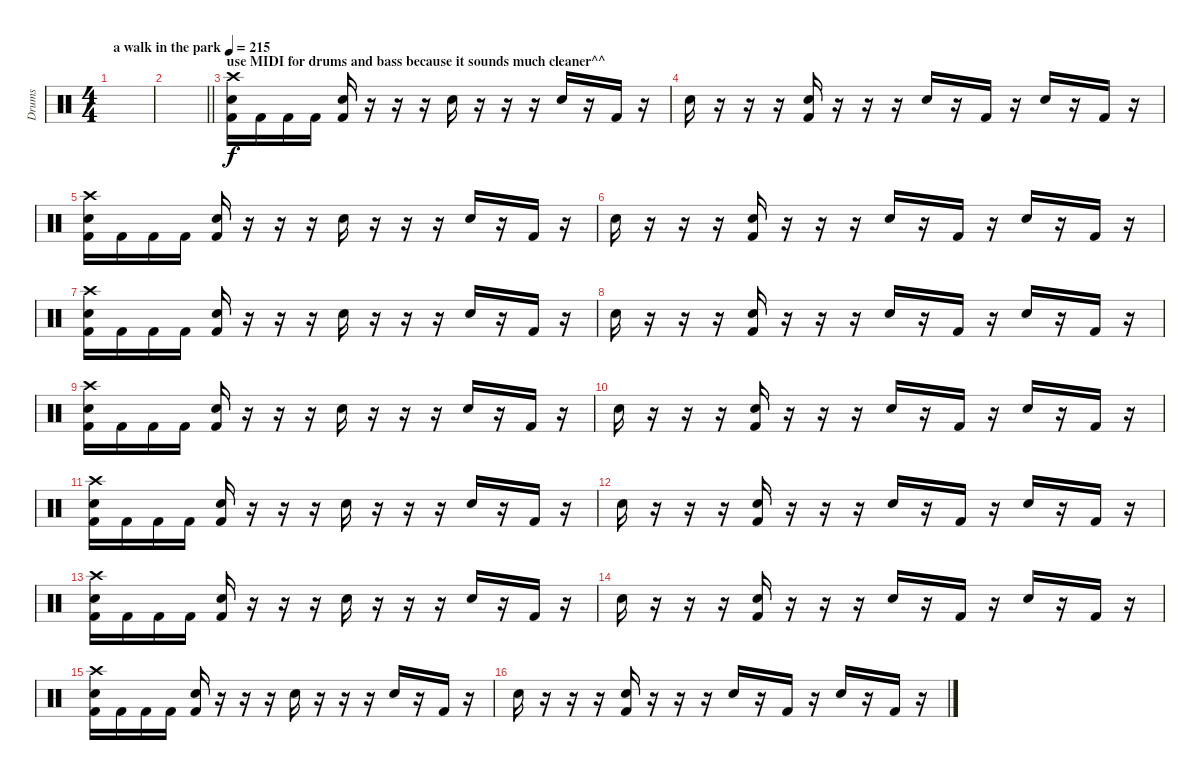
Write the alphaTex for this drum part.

\track ("Drums" "Drums") {instrument percussion}
\staff {score}
\articulation defaults
\ts (4 4)
\tempo (215 "a walk in the park")
\clef neutral
\ks c
|
\barLineRight lightlight
|
\section ("" "use MIDI for drums and bass because it sounds much cleaner^^")
("Crash high (hit)" "Snare (hit) 2" "Kick (hit) 2").16 "Kick (hit) 2".16 "Kick (hit) 2".16 "Kick (hit) 2".16 ("Snare (hit) 2" "Kick (hit) 2").16 r.16 r.16 r.16 "Snare (hit) 2".16 r.16 r.16 r.16 "Snare (hit) 2".16 r.16 "Kick (hit) 2".16 r.16 |
"Snare (hit) 2".16 r.16 r.16 r.16 ("Snare (hit) 2" "Kick (hit) 2").16 r.16 r.16 r.16 "Snare (hit) 2".16 r.16 "Kick (hit) 2".16 r.16 "Snare (hit) 2".16 r.16 "Kick (hit) 2".16 r.16 |
("Crash high (hit)" "Snare (hit) 2" "Kick (hit) 2").16 "Kick (hit) 2".16 "Kick (hit) 2".16 "Kick (hit) 2".16 ("Snare (hit) 2" "Kick (hit) 2").16 r.16 r.16 r.16 "Snare (hit) 2".16 r.16 r.16 r.16 "Snare (hit) 2".16 r.16 "Kick (hit) 2".16 r.16 |
"Snare (hit) 2".16 r.16 r.16 r.16 ("Snare (hit) 2" "Kick (hit) 2").16 r.16 r.16 r.16 "Snare (hit) 2".16 r.16 "Kick (hit) 2".16 r.16 "Snare (hit) 2".16 r.16 "Kick (hit) 2".16 r.16 |
("Crash high (hit)" "Snare (hit) 2" "Kick (hit) 2").16 "Kick (hit) 2".16 "Kick (hit) 2".16 "Kick (hit) 2".16 ("Snare (hit) 2" "Kick (hit) 2").16 r.16 r.16 r.16 "Snare (hit) 2".16 r.16 r.16 r.16 "Snare (hit) 2".16 r.16 "Kick (hit) 2".16 r.16 |
"Snare (hit) 2".16 r.16 r.16 r.16 ("Snare (hit) 2" "Kick (hit) 2").16 r.16 r.16 r.16 "Snare (hit) 2".16 r.16 "Kick (hit) 2".16 r.16 "Snare (hit) 2".16 r.16 "Kick (hit) 2".16 r.16 |
("Crash high (hit)" "Snare (hit) 2" "Kick (hit) 2").16 "Kick (hit) 2".16 "Kick (hit) 2".16 "Kick (hit) 2".16 ("Snare (hit) 2" "Kick (hit) 2").16 r.16 r.16 r.16 "Snare (hit) 2".16 r.16 r.16 r.16 "Snare (hit) 2".16 r.16 "Kick (hit) 2".16 r.16 |
"Snare (hit) 2".16 r.16 r.16 r.16 ("Snare (hit) 2" "Kick (hit) 2").16 r.16 r.16 r.16 "Snare (hit) 2".16 r.16 "Kick (hit) 2".16 r.16 "Snare (hit) 2".16 r.16 "Kick (hit) 2".16 r.16 |
("Crash high (hit)" "Snare (hit) 2" "Kick (hit) 2").16 "Kick (hit) 2".16 "Kick (hit) 2".16 "Kick (hit) 2".16 ("Snare (hit) 2" "Kick (hit) 2").16 r.16 r.16 r.16 "Snare (hit) 2".16 r.16 r.16 r.16 "Snare (hit) 2".16 r.16 "Kick (hit) 2".16 r.16 |
"Snare (hit) 2".16 r.16 r.16 r.16 ("Snare (hit) 2" "Kick (hit) 2").16 r.16 r.16 r.16 "Snare (hit) 2".16 r.16 "Kick (hit) 2".16 r.16 "Snare (hit) 2".16 r.16 "Kick (hit) 2".16 r.16 |
("Crash high (hit)" "Snare (hit) 2" "Kick (hit) 2").16 "Kick (hit) 2".16 "Kick (hit) 2".16 "Kick (hit) 2".16 ("Snare (hit) 2" "Kick (hit) 2").16 r.16 r.16 r.16 "Snare (hit) 2".16 r.16 r.16 r.16 "Snare (hit) 2".16 r.16 "Kick (hit) 2".16 r.16 |
"Snare (hit) 2".16 r.16 r.16 r.16 ("Snare (hit) 2" "Kick (hit) 2").16 r.16 r.16 r.16 "Snare (hit) 2".16 r.16 "Kick (hit) 2".16 r.16 "Snare (hit) 2".16 r.16 "Kick (hit) 2".16 r.16 |
("Crash high (hit)" "Snare (hit) 2" "Kick (hit) 2").16 "Kick (hit) 2".16 "Kick (hit) 2".16 "Kick (hit) 2".16 ("Snare (hit) 2" "Kick (hit) 2").16 r.16 r.16 r.16 "Snare (hit) 2".16 r.16 r.16 r.16 "Snare (hit) 2".16 r.16 "Kick (hit) 2".16 r.16 |
"Snare (hit) 2".16 r.16 r.16 r.16 ("Snare (hit) 2" "Kick (hit) 2").16 r.16 r.16 r.16 "Snare (hit) 2".16 r.16 "Kick (hit) 2".16 r.16 "Snare (hit) 2".16 r.16 "Kick (hit) 2".16 r.16
